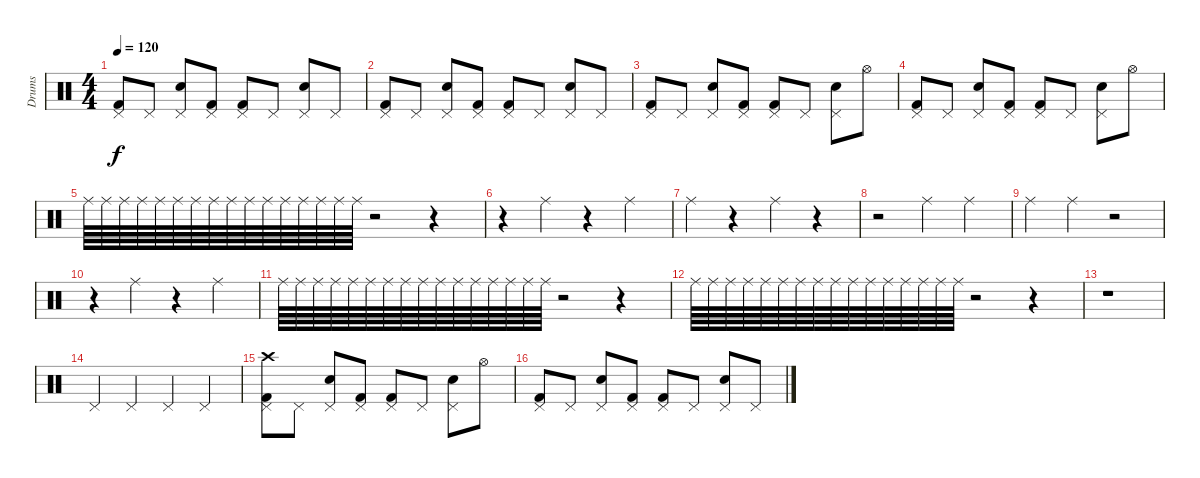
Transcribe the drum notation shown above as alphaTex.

\track ("Drums" "Drums") {instrument percussion}
\staff {score}
\articulation defaults
\ts (4 4)
\tempo 120
\clef neutral
\ks c
("Pedal Hi-Hat (hit)" "Kick (hit) 2").8{dy f} "Pedal Hi-Hat (hit)".8 ("Pedal Hi-Hat (hit)" "Snare (hit) 2").8 ("Pedal Hi-Hat (hit)" "Kick (hit) 2").8 ("Pedal Hi-Hat (hit)" "Kick (hit) 2").8 "Pedal Hi-Hat (hit)".8 ("Pedal Hi-Hat (hit)" "Snare (hit) 2").8 "Pedal Hi-Hat (hit)".8 |
("Pedal Hi-Hat (hit)" "Kick (hit) 2").8 "Pedal Hi-Hat (hit)".8 ("Pedal Hi-Hat (hit)" "Snare (hit) 2").8 ("Pedal Hi-Hat (hit)" "Kick (hit) 2").8 ("Pedal Hi-Hat (hit)" "Kick (hit) 2").8 "Pedal Hi-Hat (hit)".8 ("Pedal Hi-Hat (hit)" "Snare (hit) 2").8 "Pedal Hi-Hat (hit)".8 |
("Pedal Hi-Hat (hit)" "Kick (hit) 2").8 "Pedal Hi-Hat (hit)".8 ("Pedal Hi-Hat (hit)" "Snare (hit) 2").8 ("Pedal Hi-Hat (hit)" "Kick (hit) 2").8 ("Pedal Hi-Hat (hit)" "Kick (hit) 2").8 "Pedal Hi-Hat (hit)".8 ("Pedal Hi-Hat (hit)" "Snare (hit) 2").8 "Hi-Hat (open)".8 |
("Pedal Hi-Hat (hit)" "Kick (hit) 2").8 "Pedal Hi-Hat (hit)".8 ("Pedal Hi-Hat (hit)" "Snare (hit) 2").8 ("Pedal Hi-Hat (hit)" "Kick (hit) 2").8 ("Pedal Hi-Hat (hit)" "Kick (hit) 2").8 "Pedal Hi-Hat (hit)".8 ("Pedal Hi-Hat (hit)" "Snare (hit) 2").8 "Hi-Hat (open)".8 |
"Ride (middle)".64 "Ride (middle)".64 "Ride (middle)".64 "Ride (middle)".64 "Ride (middle)".64 "Ride (middle)".64 "Ride (middle)".64 "Ride (middle)".64 "Ride (middle)".64 "Ride (middle)".64 "Ride (middle)".64 "Ride (middle)".64 "Ride (middle)".64 "Ride (middle)".64 "Ride (middle)".64 "Ride (middle)".64 r.2 r.4 |
r.4 "Ride (middle)".4 r.4 "Ride (middle)".4 |
"Ride (middle)".4 r.4 "Ride (middle)".4 r.4 |
r.2 "Ride (middle)".4 "Ride (middle)".4 |
"Ride (middle)".4 "Ride (middle)".4 r.2 |
r.4 "Ride (middle)".4 r.4 "Ride (middle)".4 |
"Ride (middle)".64 "Ride (middle)".64 "Ride (middle)".64 "Ride (middle)".64 "Ride (middle)".64 "Ride (middle)".64 "Ride (middle)".64 "Ride (middle)".64 "Ride (middle)".64 "Ride (middle)".64 "Ride (middle)".64 "Ride (middle)".64 "Ride (middle)".64 "Ride (middle)".64 "Ride (middle)".64 "Ride (middle)".64 r.2 r.4 |
"Ride (middle)".64 "Ride (middle)".64 "Ride (middle)".64 "Ride (middle)".64 "Ride (middle)".64 "Ride (middle)".64 "Ride (middle)".64 "Ride (middle)".64 "Ride (middle)".64 "Ride (middle)".64 "Ride (middle)".64 "Ride (middle)".64 "Ride (middle)".64 "Ride (middle)".64 "Ride (middle)".64 "Ride (middle)".64 r.2 r.4 |
r.1 |
"Pedal Hi-Hat (hit)".4 "Pedal Hi-Hat (hit)".4 "Pedal Hi-Hat (hit)".4 "Pedal Hi-Hat (hit)".4 |
("Crash high (hit)" "Pedal Hi-Hat (hit)" "Kick (hit) 2").8 "Pedal Hi-Hat (hit)".8 ("Pedal Hi-Hat (hit)" "Snare (hit) 2").8 ("Pedal Hi-Hat (hit)" "Kick (hit) 2").8 ("Pedal Hi-Hat (hit)" "Kick (hit) 2").8 "Pedal Hi-Hat (hit)".8 ("Pedal Hi-Hat (hit)" "Snare (hit) 2").8 "Hi-Hat (open)".8 |
("Pedal Hi-Hat (hit)" "Kick (hit) 2").8 "Pedal Hi-Hat (hit)".8 ("Pedal Hi-Hat (hit)" "Snare (hit) 2").8 ("Pedal Hi-Hat (hit)" "Kick (hit) 2").8 ("Pedal Hi-Hat (hit)" "Kick (hit) 2").8 "Pedal Hi-Hat (hit)".8 ("Pedal Hi-Hat (hit)" "Snare (hit) 2").8 "Pedal Hi-Hat (hit)".8
